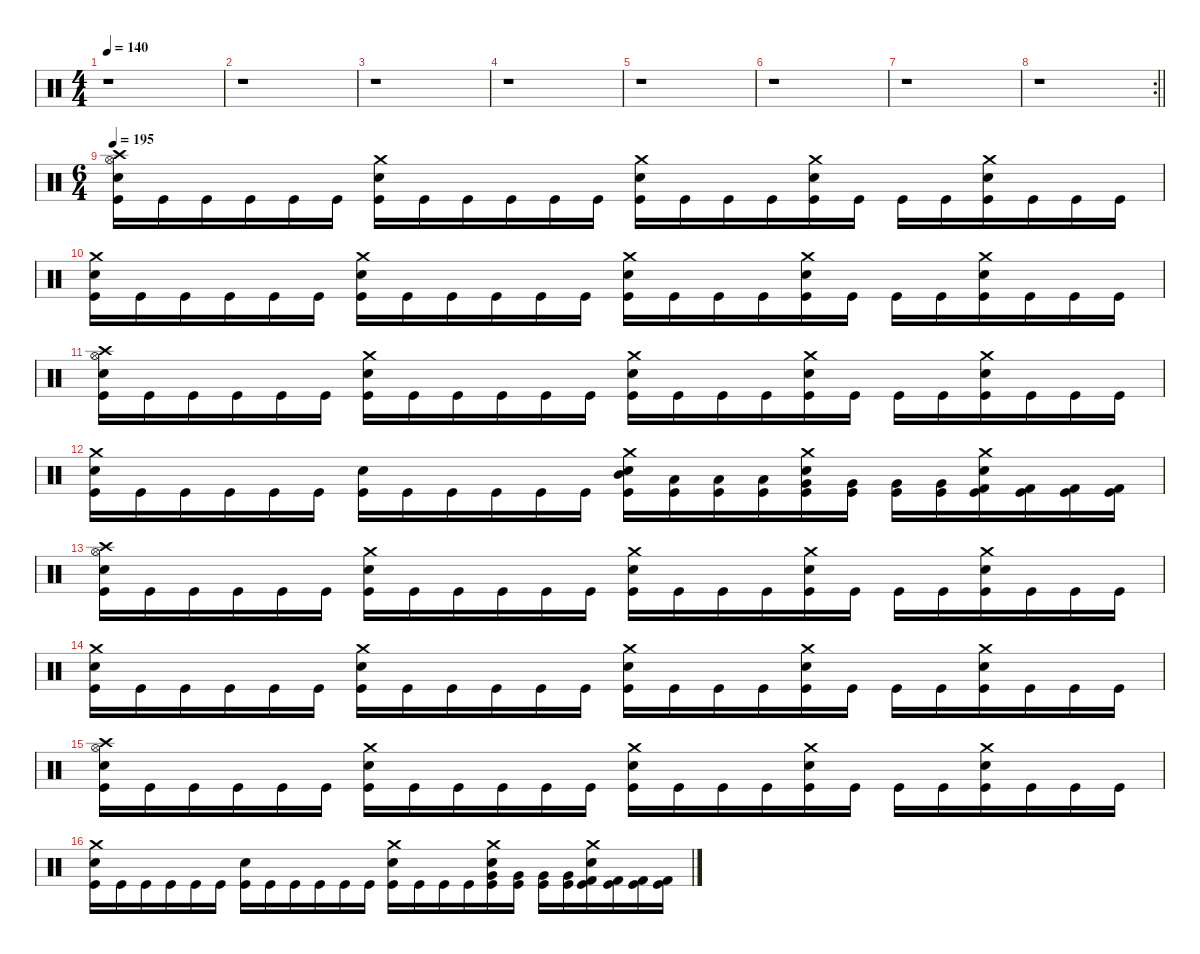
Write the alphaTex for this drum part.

\defaultSystemsLayout 4
\hideDynamics
\bracketExtendMode nobrackets
\singleTrackTrackNamePolicy hidden
\multiTrackTrackNamePolicy hidden
\firstSystemTrackNameMode fullname
\firstSystemTrackNameOrientation horizontal
\otherSystemsTrackNameOrientation horizontal
\track ("Percussion" "drm.") {defaultSystemsLayout 4 instrument percussion}
\staff {score}
\articulation defaults
\ts (4 4)
\beaming (8 2 2 2 2)
\tempo 140
\clef neutral
\ks c
r.1{dy f beam Down} |
r.1{beam Down} |
r.1{beam Down} |
r.1{beam Down} |
r.1{beam Down} |
r.1{beam Down} |
r.1{beam Down} |
\rc 2
\barLineRight lightlight
r.1{beam Down} |
\ts (6 4)
\beaming (8 3 3 3 3)
\tempo 195
("Crash high (hit)" "Hi-Hat (open)" "Snare (hit) 2" "Kick (hit)").16{beam Down} "Kick (hit)".16{beam Down} "Kick (hit)".16{beam Down} "Kick (hit)".16{beam Down} "Kick (hit)".16{beam Down} "Kick (hit)".16{beam Down} ("Crash medium (hit)" "Snare (hit) 2" "Kick (hit)").16{beam Down} "Kick (hit)".16{beam Down} "Kick (hit)".16{beam Down} "Kick (hit)".16{beam Down} "Kick (hit)".16{beam Down} "Kick (hit)".16{beam Down} ("Crash medium (hit)" "Snare (hit) 2" "Kick (hit)").16{beam Down} "Kick (hit)".16{beam Down} "Kick (hit)".16{beam Down} "Kick (hit)".16{beam Down} ("Crash medium (hit)" "Snare (hit) 2" "Kick (hit)").16{beam Down} "Kick (hit)".16{beam Down} "Kick (hit)".16{beam Down} "Kick (hit)".16{beam Down} ("Crash medium (hit)" "Snare (hit) 2" "Kick (hit)").16{beam Down} "Kick (hit)".16{beam Down} "Kick (hit)".16{beam Down} "Kick (hit)".16{beam Down} |
("Crash medium (hit)" "Snare (hit) 2" "Kick (hit)").16{beam Down} "Kick (hit)".16{beam Down} "Kick (hit)".16{beam Down} "Kick (hit)".16{beam Down} "Kick (hit)".16{beam Down} "Kick (hit)".16{beam Down} ("Crash medium (hit)" "Snare (hit) 2" "Kick (hit)").16{beam Down} "Kick (hit)".16{beam Down} "Kick (hit)".16{beam Down} "Kick (hit)".16{beam Down} "Kick (hit)".16{beam Down} "Kick (hit)".16{beam Down} ("Crash medium (hit)" "Snare (hit) 2" "Kick (hit)").16{beam Down} "Kick (hit)".16{beam Down} "Kick (hit)".16{beam Down} "Kick (hit)".16{beam Down} ("Crash medium (hit)" "Snare (hit) 2" "Kick (hit)").16{beam Down} "Kick (hit)".16{beam Down} "Kick (hit)".16{beam Down} "Kick (hit)".16{beam Down} ("Crash medium (hit)" "Snare (hit) 2" "Kick (hit)").16{beam Down} "Kick (hit)".16{beam Down} "Kick (hit)".16{beam Down} "Kick (hit)".16{beam Down} |
("Crash high (hit)" "Hi-Hat (open)" "Snare (hit) 2" "Kick (hit)").16{beam Down} "Kick (hit)".16{beam Down} "Kick (hit)".16{beam Down} "Kick (hit)".16{beam Down} "Kick (hit)".16{beam Down} "Kick (hit)".16{beam Down} ("Crash medium (hit)" "Snare (hit) 2" "Kick (hit)").16{beam Down} "Kick (hit)".16{beam Down} "Kick (hit)".16{beam Down} "Kick (hit)".16{beam Down} "Kick (hit)".16{beam Down} "Kick (hit)".16{beam Down} ("Crash medium (hit)" "Snare (hit) 2" "Kick (hit)").16{beam Down} "Kick (hit)".16{beam Down} "Kick (hit)".16{beam Down} "Kick (hit)".16{beam Down} ("Crash medium (hit)" "Snare (hit) 2" "Kick (hit)").16{beam Down} "Kick (hit)".16{beam Down} "Kick (hit)".16{beam Down} "Kick (hit)".16{beam Down} ("Crash medium (hit)" "Snare (hit) 2" "Kick (hit)").16{beam Down} "Kick (hit)".16{beam Down} "Kick (hit)".16{beam Down} "Kick (hit)".16{beam Down} |
("Crash medium (hit)" "Snare (hit) 2" "Kick (hit)").16{beam Down} "Kick (hit)".16{beam Down} "Kick (hit)".16{beam Down} "Kick (hit)".16{beam Down} "Kick (hit)".16{beam Down} "Kick (hit)".16{beam Down} ("Snare (hit) 2" "Kick (hit)").16{beam Down} "Kick (hit)".16{beam Down} "Kick (hit)".16{beam Down} "Kick (hit)".16{beam Down} "Kick (hit)".16{beam Down} "Kick (hit)".16{beam Down} ("Mid Tom (hit)" "Crash medium (hit)" "Snare (hit) 2" "Kick (hit)").16{beam Down} ("Low Tom (hit)" "Kick (hit)").16{beam Down} ("Low Tom (hit)" "Kick (hit)").16{beam Down} ("Low Tom (hit)" "Kick (hit)").16{beam Down} ("Very Low Tom (hit)" "Crash medium (hit)" "Snare (hit) 2" "Kick (hit)").16{beam Down} ("Very Low Tom (hit)" "Kick (hit)").16{beam Down} ("Very Low Tom (hit)" "Kick (hit)").16{beam Down} ("Very Low Tom (hit)" "Kick (hit)").16{beam Down} ("Crash medium (hit)" "Snare (hit) 2" "Kick (hit)" "Kick (hit) 2").16{beam Down} ("Kick (hit)" "Kick (hit) 2").16{beam Down} ("Kick (hit)" "Kick (hit) 2").16{beam Down} ("Kick (hit)" "Kick (hit) 2").16{beam Down} |
("Crash high (hit)" "Hi-Hat (open)" "Snare (hit) 2" "Kick (hit)").16{beam Down} "Kick (hit)".16{beam Down} "Kick (hit)".16{beam Down} "Kick (hit)".16{beam Down} "Kick (hit)".16{beam Down} "Kick (hit)".16{beam Down} ("Crash medium (hit)" "Snare (hit) 2" "Kick (hit)").16{beam Down} "Kick (hit)".16{beam Down} "Kick (hit)".16{beam Down} "Kick (hit)".16{beam Down} "Kick (hit)".16{beam Down} "Kick (hit)".16{beam Down} ("Crash medium (hit)" "Snare (hit) 2" "Kick (hit)").16{beam Down} "Kick (hit)".16{beam Down} "Kick (hit)".16{beam Down} "Kick (hit)".16{beam Down} ("Crash medium (hit)" "Snare (hit) 2" "Kick (hit)").16{beam Down} "Kick (hit)".16{beam Down} "Kick (hit)".16{beam Down} "Kick (hit)".16{beam Down} ("Crash medium (hit)" "Snare (hit) 2" "Kick (hit)").16{beam Down} "Kick (hit)".16{beam Down} "Kick (hit)".16{beam Down} "Kick (hit)".16{beam Down} |
("Crash medium (hit)" "Snare (hit) 2" "Kick (hit)").16{beam Down} "Kick (hit)".16{beam Down} "Kick (hit)".16{beam Down} "Kick (hit)".16{beam Down} "Kick (hit)".16{beam Down} "Kick (hit)".16{beam Down} ("Crash medium (hit)" "Snare (hit) 2" "Kick (hit)").16{beam Down} "Kick (hit)".16{beam Down} "Kick (hit)".16{beam Down} "Kick (hit)".16{beam Down} "Kick (hit)".16{beam Down} "Kick (hit)".16{beam Down} ("Crash medium (hit)" "Snare (hit) 2" "Kick (hit)").16{beam Down} "Kick (hit)".16{beam Down} "Kick (hit)".16{beam Down} "Kick (hit)".16{beam Down} ("Crash medium (hit)" "Snare (hit) 2" "Kick (hit)").16{beam Down} "Kick (hit)".16{beam Down} "Kick (hit)".16{beam Down} "Kick (hit)".16{beam Down} ("Crash medium (hit)" "Snare (hit) 2" "Kick (hit)").16{beam Down} "Kick (hit)".16{beam Down} "Kick (hit)".16{beam Down} "Kick (hit)".16{beam Down} |
("Crash high (hit)" "Hi-Hat (open)" "Snare (hit) 2" "Kick (hit)").16{beam Down} "Kick (hit)".16{beam Down} "Kick (hit)".16{beam Down} "Kick (hit)".16{beam Down} "Kick (hit)".16{beam Down} "Kick (hit)".16{beam Down} ("Crash medium (hit)" "Snare (hit) 2" "Kick (hit)").16{beam Down} "Kick (hit)".16{beam Down} "Kick (hit)".16{beam Down} "Kick (hit)".16{beam Down} "Kick (hit)".16{beam Down} "Kick (hit)".16{beam Down} ("Crash medium (hit)" "Snare (hit) 2" "Kick (hit)").16{beam Down} "Kick (hit)".16{beam Down} "Kick (hit)".16{beam Down} "Kick (hit)".16{beam Down} ("Crash medium (hit)" "Snare (hit) 2" "Kick (hit)").16{beam Down} "Kick (hit)".16{beam Down} "Kick (hit)".16{beam Down} "Kick (hit)".16{beam Down} ("Crash medium (hit)" "Snare (hit) 2" "Kick (hit)").16{beam Down} "Kick (hit)".16{beam Down} "Kick (hit)".16{beam Down} "Kick (hit)".16{beam Down} |
("Crash medium (hit)" "Snare (hit) 2" "Kick (hit)").16{beam Down} "Kick (hit)".16{beam Down} "Kick (hit)".16{beam Down} "Kick (hit)".16{beam Down} "Kick (hit)".16{beam Down} "Kick (hit)".16{beam Down} ("Snare (hit) 2" "Kick (hit)").16{beam Down} "Kick (hit)".16{beam Down} "Kick (hit)".16{beam Down} "Kick (hit)".16{beam Down} "Kick (hit)".16{beam Down} "Kick (hit)".16{beam Down} ("Crash medium (hit)" "Snare (hit) 2" "Kick (hit)").16{beam Down} "Kick (hit)".16{beam Down} "Kick (hit)".16{beam Down} "Kick (hit)".16{beam Down} ("Very Low Tom (hit)" "Crash medium (hit)" "Snare (hit) 2" "Kick (hit)").16{beam Down} ("Very Low Tom (hit)" "Kick (hit)").16{beam Down} ("Very Low Tom (hit)" "Kick (hit)").16{beam Down} ("Very Low Tom (hit)" "Kick (hit)").16{beam Down} ("Crash medium (hit)" "Snare (hit) 2" "Kick (hit)" "Kick (hit) 2").16{beam Down} ("Kick (hit) 2" "Kick (hit)").16{beam Down} ("Kick (hit) 2" "Kick (hit)").16{beam Down} ("Kick (hit) 2" "Kick (hit)").16{beam Down}
